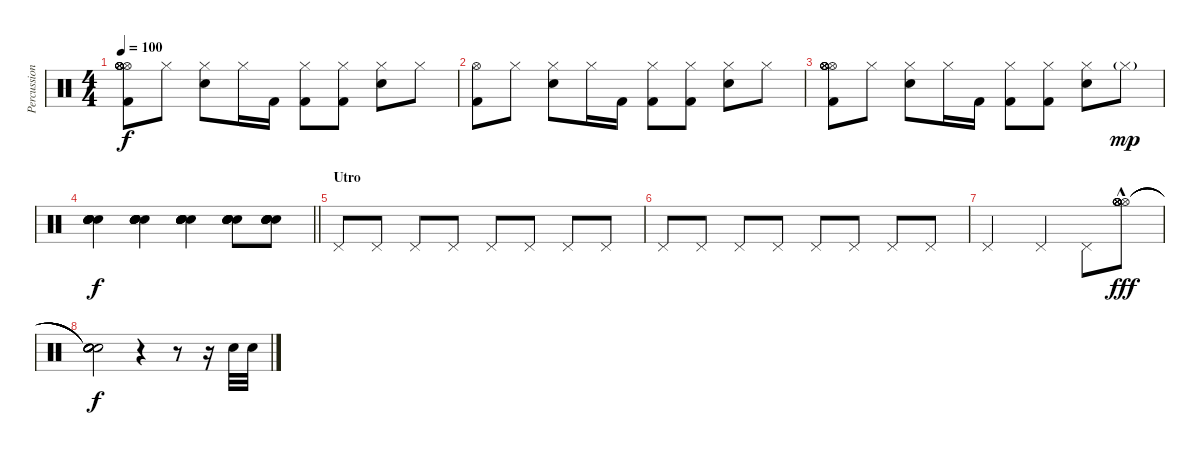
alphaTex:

\track ("Percussion" "Percussion") {instrument percussion}
\staff {score}
\articulation defaults
\ts (4 4)
\tempo 100
\clef neutral
\ks c
("Hi-Hat (open)" "Kick (hit) 2" "Hi-Hat (open)" "Hi-Hat (open)" "Hi-Hat (open)" "Hi-Hat (open)").8{dy f} "Hi-Hat (closed)".8 ("Hi-Hat (closed)" "Snare (hit) 2").8 "Hi-Hat (closed)".16 "Kick (hit) 2".16 ("Hi-Hat (closed)" "Kick (hit) 2").8 ("Hi-Hat (closed)" "Kick (hit) 2").8 ("Hi-Hat (closed)" "Snare (hit) 2").8 "Hi-Hat (closed)".8 |
("Hi-Hat (open)" "Kick (hit) 2").8 "Hi-Hat (closed)".8 ("Hi-Hat (closed)" "Snare (hit) 2").8 "Hi-Hat (closed)".16 "Kick (hit) 2".16 ("Hi-Hat (closed)" "Kick (hit) 2").8 ("Hi-Hat (closed)" "Kick (hit) 2").8 ("Hi-Hat (closed)" "Snare (hit) 2").8 "Hi-Hat (closed)".8 |
("Hi-Hat (open)" "Kick (hit) 2" "Hi-Hat (open)" "Hi-Hat (open)" "Hi-Hat (open)" "Hi-Hat (open)").8 "Hi-Hat (closed)".8 ("Hi-Hat (closed)" "Snare (hit) 2").8 "Hi-Hat (closed)".16 "Kick (hit) 2".16 ("Hi-Hat (closed)" "Kick (hit) 2").8 ("Hi-Hat (closed)" "Kick (hit) 2").8 ("Hi-Hat (closed)" "Snare (hit) 2").8 "Hi-Hat (closed)"{g}.8{dy mp} |
\barLineRight lightlight
("Electric Snare (hit)" "Electric Snare (hit)" "Electric Snare (hit)" "Electric Snare (hit)" "Electric Snare (hit)" "Electric Snare (hit)").4{dy f} ("Electric Snare (hit)" "Electric Snare (hit)" "Electric Snare (hit)" "Electric Snare (hit)" "Electric Snare (hit)" "Electric Snare (hit)").4 ("Electric Snare (hit)" "Electric Snare (hit)" "Electric Snare (hit)" "Electric Snare (hit)" "Electric Snare (hit)" "Electric Snare (hit)").4 ("Electric Snare (hit)" "Electric Snare (hit)" "Electric Snare (hit)" "Electric Snare (hit)" "Electric Snare (hit)" "Electric Snare (hit)").8 ("Electric Snare (hit)" "Electric Snare (hit)" "Electric Snare (hit)" "Electric Snare (hit)" "Electric Snare (hit)" "Electric Snare (hit)").8 |
\section ("" "Utro")
"Pedal Hi-Hat (hit)".8 "Pedal Hi-Hat (hit)".8 "Pedal Hi-Hat (hit)".8 "Pedal Hi-Hat (hit)".8 "Pedal Hi-Hat (hit)".8 "Pedal Hi-Hat (hit)".8 "Pedal Hi-Hat (hit)".8 "Pedal Hi-Hat (hit)".8 |
"Pedal Hi-Hat (hit)".8 "Pedal Hi-Hat (hit)".8 "Pedal Hi-Hat (hit)".8 "Pedal Hi-Hat (hit)".8 "Pedal Hi-Hat (hit)".8 "Pedal Hi-Hat (hit)".8 "Pedal Hi-Hat (hit)".8 "Pedal Hi-Hat (hit)".8 |
"Pedal Hi-Hat (hit)".2 "Pedal Hi-Hat (hit)".4 "Pedal Hi-Hat (hit)".8 ("Hi-Hat (open)"{hac} "Hi-Hat (open)"{hac} "Hi-Hat (open)"{hac} "Hi-Hat (open)"{hac} "Hi-Hat (open)"{hac} "Hi-Hat (open)"{hac}).8{dy fff} |
("Snare (hit)"{t} "Snare (hit)"{t} "Snare (hit)"{t} "Snare (hit)"{t} "Snare (hit)"{t}).2{dy f} r.4 r.8 r.16 "Electric Snare (hit)".32 "Electric Snare (hit)".32
